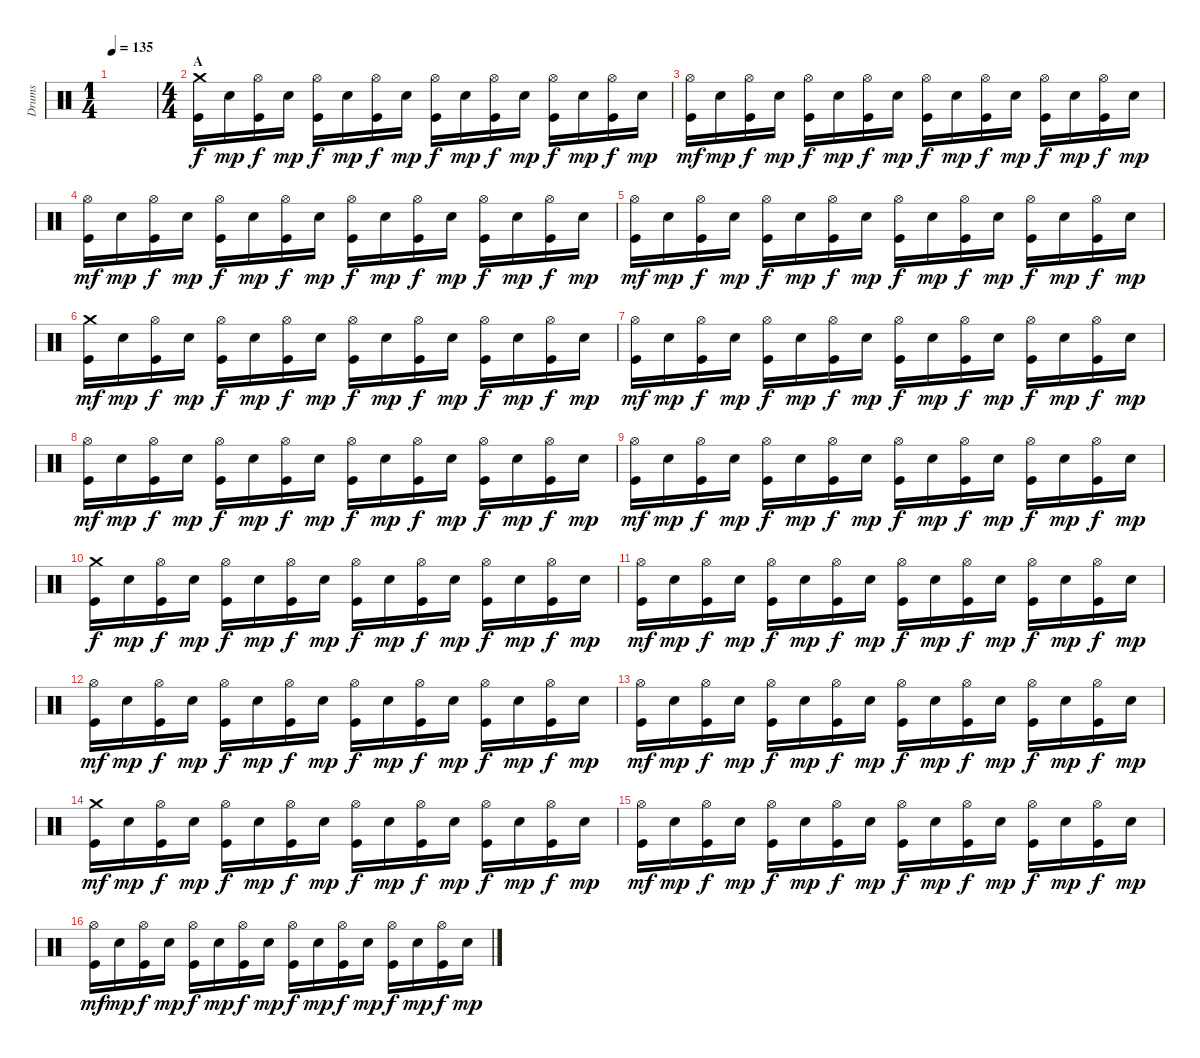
\track ("Drums" "Drums") {instrument percussion}
\staff {score}
\articulation defaults
\ts (1 4)
\tempo 135
\clef neutral
\ks c
|
\ts (4 4)
\section ("" "A")
("Crash medium (hit)" "Kick (hit)").16 "Snare (hit) 2".16{dy mp} ("Hi-Hat (open)" "Kick (hit)").16{dy f} "Snare (hit) 2".16{dy mp} ("Hi-Hat (open)" "Kick (hit)").16{dy f} "Snare (hit) 2".16{dy mp} ("Hi-Hat (open)" "Kick (hit)").16{dy f} "Snare (hit) 2".16{dy mp} ("Hi-Hat (open)" "Kick (hit)").16{dy f} "Snare (hit) 2".16{dy mp} ("Hi-Hat (open)" "Kick (hit)").16{dy f} "Snare (hit) 2".16{dy mp} ("Hi-Hat (open)" "Kick (hit)").16{dy f} "Snare (hit) 2".16{dy mp} ("Hi-Hat (open)" "Kick (hit)").16{dy f} "Snare (hit) 2".16{dy mp} |
("Hi-Hat (open)" "Kick (hit)").16{dy mf} "Snare (hit) 2".16{dy mp} ("Hi-Hat (open)" "Kick (hit)").16{dy f} "Snare (hit) 2".16{dy mp} ("Hi-Hat (open)" "Kick (hit)").16{dy f} "Snare (hit) 2".16{dy mp} ("Hi-Hat (open)" "Kick (hit)").16{dy f} "Snare (hit) 2".16{dy mp} ("Hi-Hat (open)" "Kick (hit)").16{dy f} "Snare (hit) 2".16{dy mp} ("Hi-Hat (open)" "Kick (hit)").16{dy f} "Snare (hit) 2".16{dy mp} ("Hi-Hat (open)" "Kick (hit)").16{dy f} "Snare (hit) 2".16{dy mp} ("Hi-Hat (open)" "Kick (hit)").16{dy f} "Snare (hit) 2".16{dy mp} |
("Hi-Hat (open)" "Kick (hit)").16{dy mf} "Snare (hit) 2".16{dy mp} ("Hi-Hat (open)" "Kick (hit)").16{dy f} "Snare (hit) 2".16{dy mp} ("Hi-Hat (open)" "Kick (hit)").16{dy f} "Snare (hit) 2".16{dy mp} ("Hi-Hat (open)" "Kick (hit)").16{dy f} "Snare (hit) 2".16{dy mp} ("Hi-Hat (open)" "Kick (hit)").16{dy f} "Snare (hit) 2".16{dy mp} ("Hi-Hat (open)" "Kick (hit)").16{dy f} "Snare (hit) 2".16{dy mp} ("Hi-Hat (open)" "Kick (hit)").16{dy f} "Snare (hit) 2".16{dy mp} ("Hi-Hat (open)" "Kick (hit)").16{dy f} "Snare (hit) 2".16{dy mp} |
("Hi-Hat (open)" "Kick (hit)").16{dy mf} "Snare (hit) 2".16{dy mp} ("Hi-Hat (open)" "Kick (hit)").16{dy f} "Snare (hit) 2".16{dy mp} ("Hi-Hat (open)" "Kick (hit)").16{dy f} "Snare (hit) 2".16{dy mp} ("Hi-Hat (open)" "Kick (hit)").16{dy f} "Snare (hit) 2".16{dy mp} ("Hi-Hat (open)" "Kick (hit)").16{dy f} "Snare (hit) 2".16{dy mp} ("Hi-Hat (open)" "Kick (hit)").16{dy f} "Snare (hit) 2".16{dy mp} ("Hi-Hat (open)" "Kick (hit)").16{dy f} "Snare (hit) 2".16{dy mp} ("Hi-Hat (open)" "Kick (hit)").16{dy f} "Snare (hit) 2".16{dy mp} |
("Crash medium (hit)" "Kick (hit)").16{dy mf} "Snare (hit) 2".16{dy mp} ("Hi-Hat (open)" "Kick (hit)").16{dy f} "Snare (hit) 2".16{dy mp} ("Hi-Hat (open)" "Kick (hit)").16{dy f} "Snare (hit) 2".16{dy mp} ("Hi-Hat (open)" "Kick (hit)").16{dy f} "Snare (hit) 2".16{dy mp} ("Hi-Hat (open)" "Kick (hit)").16{dy f} "Snare (hit) 2".16{dy mp} ("Hi-Hat (open)" "Kick (hit)").16{dy f} "Snare (hit) 2".16{dy mp} ("Hi-Hat (open)" "Kick (hit)").16{dy f} "Snare (hit) 2".16{dy mp} ("Hi-Hat (open)" "Kick (hit)").16{dy f} "Snare (hit) 2".16{dy mp} |
("Hi-Hat (open)" "Kick (hit)").16{dy mf} "Snare (hit) 2".16{dy mp} ("Hi-Hat (open)" "Kick (hit)").16{dy f} "Snare (hit) 2".16{dy mp} ("Hi-Hat (open)" "Kick (hit)").16{dy f} "Snare (hit) 2".16{dy mp} ("Hi-Hat (open)" "Kick (hit)").16{dy f} "Snare (hit) 2".16{dy mp} ("Hi-Hat (open)" "Kick (hit)").16{dy f} "Snare (hit) 2".16{dy mp} ("Hi-Hat (open)" "Kick (hit)").16{dy f} "Snare (hit) 2".16{dy mp} ("Hi-Hat (open)" "Kick (hit)").16{dy f} "Snare (hit) 2".16{dy mp} ("Hi-Hat (open)" "Kick (hit)").16{dy f} "Snare (hit) 2".16{dy mp} |
("Hi-Hat (open)" "Kick (hit)").16{dy mf} "Snare (hit) 2".16{dy mp} ("Hi-Hat (open)" "Kick (hit)").16{dy f} "Snare (hit) 2".16{dy mp} ("Hi-Hat (open)" "Kick (hit)").16{dy f} "Snare (hit) 2".16{dy mp} ("Hi-Hat (open)" "Kick (hit)").16{dy f} "Snare (hit) 2".16{dy mp} ("Hi-Hat (open)" "Kick (hit)").16{dy f} "Snare (hit) 2".16{dy mp} ("Hi-Hat (open)" "Kick (hit)").16{dy f} "Snare (hit) 2".16{dy mp} ("Hi-Hat (open)" "Kick (hit)").16{dy f} "Snare (hit) 2".16{dy mp} ("Hi-Hat (open)" "Kick (hit)").16{dy f} "Snare (hit) 2".16{dy mp} |
("Hi-Hat (open)" "Kick (hit)").16{dy mf} "Snare (hit) 2".16{dy mp} ("Hi-Hat (open)" "Kick (hit)").16{dy f} "Snare (hit) 2".16{dy mp} ("Hi-Hat (open)" "Kick (hit)").16{dy f} "Snare (hit) 2".16{dy mp} ("Hi-Hat (open)" "Kick (hit)").16{dy f} "Snare (hit) 2".16{dy mp} ("Hi-Hat (open)" "Kick (hit)").16{dy f} "Snare (hit) 2".16{dy mp} ("Hi-Hat (open)" "Kick (hit)").16{dy f} "Snare (hit) 2".16{dy mp} ("Hi-Hat (open)" "Kick (hit)").16{dy f} "Snare (hit) 2".16{dy mp} ("Hi-Hat (open)" "Kick (hit)").16{dy f} "Snare (hit) 2".16{dy mp} |
("Crash medium (hit)" "Kick (hit)").16{dy f} "Snare (hit) 2".16{dy mp} ("Hi-Hat (open)" "Kick (hit)").16{dy f} "Snare (hit) 2".16{dy mp} ("Hi-Hat (open)" "Kick (hit)").16{dy f} "Snare (hit) 2".16{dy mp} ("Hi-Hat (open)" "Kick (hit)").16{dy f} "Snare (hit) 2".16{dy mp} ("Hi-Hat (open)" "Kick (hit)").16{dy f} "Snare (hit) 2".16{dy mp} ("Hi-Hat (open)" "Kick (hit)").16{dy f} "Snare (hit) 2".16{dy mp} ("Hi-Hat (open)" "Kick (hit)").16{dy f} "Snare (hit) 2".16{dy mp} ("Hi-Hat (open)" "Kick (hit)").16{dy f} "Snare (hit) 2".16{dy mp} |
("Hi-Hat (open)" "Kick (hit)").16{dy mf} "Snare (hit) 2".16{dy mp} ("Hi-Hat (open)" "Kick (hit)").16{dy f} "Snare (hit) 2".16{dy mp} ("Hi-Hat (open)" "Kick (hit)").16{dy f} "Snare (hit) 2".16{dy mp} ("Hi-Hat (open)" "Kick (hit)").16{dy f} "Snare (hit) 2".16{dy mp} ("Hi-Hat (open)" "Kick (hit)").16{dy f} "Snare (hit) 2".16{dy mp} ("Hi-Hat (open)" "Kick (hit)").16{dy f} "Snare (hit) 2".16{dy mp} ("Hi-Hat (open)" "Kick (hit)").16{dy f} "Snare (hit) 2".16{dy mp} ("Hi-Hat (open)" "Kick (hit)").16{dy f} "Snare (hit) 2".16{dy mp} |
("Hi-Hat (open)" "Kick (hit)").16{dy mf} "Snare (hit) 2".16{dy mp} ("Hi-Hat (open)" "Kick (hit)").16{dy f} "Snare (hit) 2".16{dy mp} ("Hi-Hat (open)" "Kick (hit)").16{dy f} "Snare (hit) 2".16{dy mp} ("Hi-Hat (open)" "Kick (hit)").16{dy f} "Snare (hit) 2".16{dy mp} ("Hi-Hat (open)" "Kick (hit)").16{dy f} "Snare (hit) 2".16{dy mp} ("Hi-Hat (open)" "Kick (hit)").16{dy f} "Snare (hit) 2".16{dy mp} ("Hi-Hat (open)" "Kick (hit)").16{dy f} "Snare (hit) 2".16{dy mp} ("Hi-Hat (open)" "Kick (hit)").16{dy f} "Snare (hit) 2".16{dy mp} |
("Hi-Hat (open)" "Kick (hit)").16{dy mf} "Snare (hit) 2".16{dy mp} ("Hi-Hat (open)" "Kick (hit)").16{dy f} "Snare (hit) 2".16{dy mp} ("Hi-Hat (open)" "Kick (hit)").16{dy f} "Snare (hit) 2".16{dy mp} ("Hi-Hat (open)" "Kick (hit)").16{dy f} "Snare (hit) 2".16{dy mp} ("Hi-Hat (open)" "Kick (hit)").16{dy f} "Snare (hit) 2".16{dy mp} ("Hi-Hat (open)" "Kick (hit)").16{dy f} "Snare (hit) 2".16{dy mp} ("Hi-Hat (open)" "Kick (hit)").16{dy f} "Snare (hit) 2".16{dy mp} ("Hi-Hat (open)" "Kick (hit)").16{dy f} "Snare (hit) 2".16{dy mp} |
("Crash medium (hit)" "Kick (hit)").16{dy mf} "Snare (hit) 2".16{dy mp} ("Hi-Hat (open)" "Kick (hit)").16{dy f} "Snare (hit) 2".16{dy mp} ("Hi-Hat (open)" "Kick (hit)").16{dy f} "Snare (hit) 2".16{dy mp} ("Hi-Hat (open)" "Kick (hit)").16{dy f} "Snare (hit) 2".16{dy mp} ("Hi-Hat (open)" "Kick (hit)").16{dy f} "Snare (hit) 2".16{dy mp} ("Hi-Hat (open)" "Kick (hit)").16{dy f} "Snare (hit) 2".16{dy mp} ("Hi-Hat (open)" "Kick (hit)").16{dy f} "Snare (hit) 2".16{dy mp} ("Hi-Hat (open)" "Kick (hit)").16{dy f} "Snare (hit) 2".16{dy mp} |
("Hi-Hat (open)" "Kick (hit)").16{dy mf} "Snare (hit) 2".16{dy mp} ("Hi-Hat (open)" "Kick (hit)").16{dy f} "Snare (hit) 2".16{dy mp} ("Hi-Hat (open)" "Kick (hit)").16{dy f} "Snare (hit) 2".16{dy mp} ("Hi-Hat (open)" "Kick (hit)").16{dy f} "Snare (hit) 2".16{dy mp} ("Hi-Hat (open)" "Kick (hit)").16{dy f} "Snare (hit) 2".16{dy mp} ("Hi-Hat (open)" "Kick (hit)").16{dy f} "Snare (hit) 2".16{dy mp} ("Hi-Hat (open)" "Kick (hit)").16{dy f} "Snare (hit) 2".16{dy mp} ("Hi-Hat (open)" "Kick (hit)").16{dy f} "Snare (hit) 2".16{dy mp} |
("Hi-Hat (open)" "Kick (hit)").16{dy mf} "Snare (hit) 2".16{dy mp} ("Hi-Hat (open)" "Kick (hit)").16{dy f} "Snare (hit) 2".16{dy mp} ("Hi-Hat (open)" "Kick (hit)").16{dy f} "Snare (hit) 2".16{dy mp} ("Hi-Hat (open)" "Kick (hit)").16{dy f} "Snare (hit) 2".16{dy mp} ("Hi-Hat (open)" "Kick (hit)").16{dy f} "Snare (hit) 2".16{dy mp} ("Hi-Hat (open)" "Kick (hit)").16{dy f} "Snare (hit) 2".16{dy mp} ("Hi-Hat (open)" "Kick (hit)").16{dy f} "Snare (hit) 2".16{dy mp} ("Hi-Hat (open)" "Kick (hit)").16{dy f} "Snare (hit) 2".16{dy mp}
